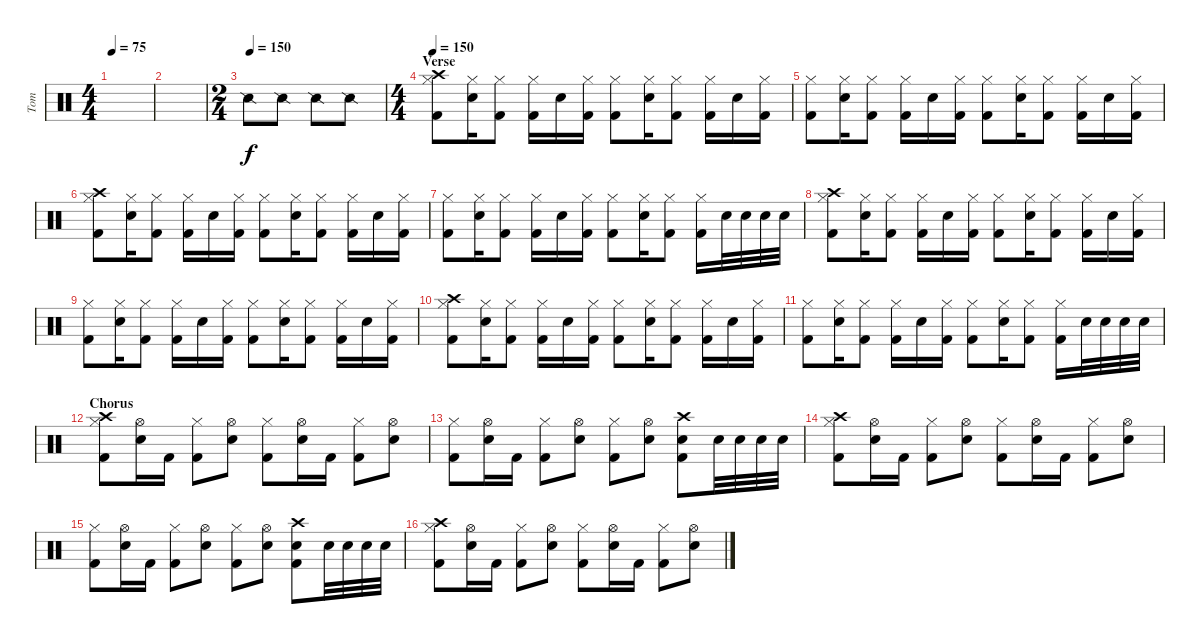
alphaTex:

\track ("Tom" "Tom") {instrument percussion}
\staff {score}
\articulation defaults
\ts (4 4)
\tempo 75
\clef neutral
\ks c
|
|
\ts (2 4)
\tempo (150)
"Snare (side stick) 2".8 "Snare (side stick) 2".8 "Snare (side stick) 2".8 "Snare (side stick) 2".8 |
\ts (4 4)
\section ("" "Verse")
\tempo 150
("Crash high (hit)" "Hi-Hat (closed)" "Kick (hit) 2").8 ("Hi-Hat (closed)" "Electric Snare (hit)").16 ("Hi-Hat (closed)" "Kick (hit) 2").8 ("Hi-Hat (closed)" "Kick (hit) 2").16 "Electric Snare (hit)".16 ("Hi-Hat (closed)" "Kick (hit) 2").16 ("Hi-Hat (closed)" "Kick (hit) 2").8 ("Hi-Hat (closed)" "Electric Snare (hit)").16 ("Hi-Hat (closed)" "Kick (hit) 2").8 ("Hi-Hat (closed)" "Kick (hit) 2").16 "Electric Snare (hit)".16 ("Hi-Hat (closed)" "Kick (hit) 2").16 |
("Hi-Hat (closed)" "Kick (hit) 2").8 ("Hi-Hat (closed)" "Electric Snare (hit)").16 ("Hi-Hat (closed)" "Kick (hit) 2").8 ("Hi-Hat (closed)" "Kick (hit) 2").16 "Electric Snare (hit)".16 ("Hi-Hat (closed)" "Kick (hit) 2").16 ("Hi-Hat (closed)" "Kick (hit) 2").8 ("Hi-Hat (closed)" "Electric Snare (hit)").16 ("Hi-Hat (closed)" "Kick (hit) 2").8 ("Hi-Hat (closed)" "Kick (hit) 2").16 "Electric Snare (hit)".16 ("Hi-Hat (closed)" "Kick (hit) 2").16 |
("Crash high (hit)" "Hi-Hat (closed)" "Kick (hit) 2").8 ("Hi-Hat (closed)" "Electric Snare (hit)").16 ("Hi-Hat (closed)" "Kick (hit) 2").8 ("Hi-Hat (closed)" "Kick (hit) 2").16 "Electric Snare (hit)".16 ("Hi-Hat (closed)" "Kick (hit) 2").16 ("Hi-Hat (closed)" "Kick (hit) 2").8 ("Hi-Hat (closed)" "Electric Snare (hit)").16 ("Hi-Hat (closed)" "Kick (hit) 2").8 ("Hi-Hat (closed)" "Kick (hit) 2").16 "Electric Snare (hit)".16 ("Hi-Hat (closed)" "Kick (hit) 2").16 |
("Hi-Hat (closed)" "Kick (hit) 2").8 ("Hi-Hat (closed)" "Electric Snare (hit)").16 ("Hi-Hat (closed)" "Kick (hit) 2").8 ("Hi-Hat (closed)" "Kick (hit) 2").16 "Electric Snare (hit)".16 ("Hi-Hat (closed)" "Kick (hit) 2").16 ("Hi-Hat (closed)" "Kick (hit) 2").8 ("Hi-Hat (closed)" "Electric Snare (hit)").16 ("Hi-Hat (closed)" "Kick (hit) 2").8 ("Hi-Hat (closed)" "Kick (hit) 2").16 "Electric Snare (hit)".32 "Electric Snare (hit)".32 "Electric Snare (hit)".32 "Electric Snare (hit)".32 |
("Crash high (hit)" "Hi-Hat (closed)" "Kick (hit) 2").8 ("Hi-Hat (closed)" "Electric Snare (hit)").16 ("Hi-Hat (closed)" "Kick (hit) 2").8 ("Hi-Hat (closed)" "Kick (hit) 2").16 "Electric Snare (hit)".16 ("Hi-Hat (closed)" "Kick (hit) 2").16 ("Hi-Hat (closed)" "Kick (hit) 2").8 ("Hi-Hat (closed)" "Electric Snare (hit)").16 ("Hi-Hat (closed)" "Kick (hit) 2").8 ("Hi-Hat (closed)" "Kick (hit) 2").16 "Electric Snare (hit)".16 ("Hi-Hat (closed)" "Kick (hit) 2").16 |
("Hi-Hat (closed)" "Kick (hit) 2").8 ("Hi-Hat (closed)" "Electric Snare (hit)").16 ("Hi-Hat (closed)" "Kick (hit) 2").8 ("Hi-Hat (closed)" "Kick (hit) 2").16 "Electric Snare (hit)".16 ("Hi-Hat (closed)" "Kick (hit) 2").16 ("Hi-Hat (closed)" "Kick (hit) 2").8 ("Hi-Hat (closed)" "Electric Snare (hit)").16 ("Hi-Hat (closed)" "Kick (hit) 2").8 ("Hi-Hat (closed)" "Kick (hit) 2").16 "Electric Snare (hit)".16 ("Hi-Hat (closed)" "Kick (hit) 2").16 |
("Crash high (hit)" "Hi-Hat (closed)" "Kick (hit) 2").8 ("Hi-Hat (closed)" "Electric Snare (hit)").16 ("Hi-Hat (closed)" "Kick (hit) 2").8 ("Hi-Hat (closed)" "Kick (hit) 2").16 "Electric Snare (hit)".16 ("Hi-Hat (closed)" "Kick (hit) 2").16 ("Hi-Hat (closed)" "Kick (hit) 2").8 ("Hi-Hat (closed)" "Electric Snare (hit)").16 ("Hi-Hat (closed)" "Kick (hit) 2").8 ("Hi-Hat (closed)" "Kick (hit) 2").16 "Electric Snare (hit)".16 ("Hi-Hat (closed)" "Kick (hit) 2").16 |
("Hi-Hat (closed)" "Kick (hit) 2").8 ("Hi-Hat (closed)" "Electric Snare (hit)").16 ("Hi-Hat (closed)" "Kick (hit) 2").8 ("Hi-Hat (closed)" "Kick (hit) 2").16 "Electric Snare (hit)".16 ("Hi-Hat (closed)" "Kick (hit) 2").16 ("Hi-Hat (closed)" "Kick (hit) 2").8 ("Hi-Hat (closed)" "Electric Snare (hit)").16 ("Hi-Hat (closed)" "Kick (hit) 2").8 ("Hi-Hat (closed)" "Kick (hit) 2").16 "Electric Snare (hit)".32 "Electric Snare (hit)".32 "Electric Snare (hit)".32 "Electric Snare (hit)".32 |
\section ("" "Chorus")
("Crash high (hit)" "Hi-Hat (closed)" "Kick (hit) 2").8 ("Hi-Hat (open)" "Electric Snare (hit)").16 "Kick (hit) 2".16 ("Hi-Hat (closed)" "Kick (hit) 2").8 ("Hi-Hat (open)" "Electric Snare (hit)").8 ("Hi-Hat (closed)" "Kick (hit) 2").8 ("Hi-Hat (open)" "Electric Snare (hit)").16 "Kick (hit) 2".16 ("Hi-Hat (closed)" "Kick (hit) 2").8 ("Hi-Hat (open)" "Electric Snare (hit)").8 |
("Hi-Hat (closed)" "Kick (hit) 2").8 ("Hi-Hat (open)" "Electric Snare (hit)").16 "Kick (hit) 2".16 ("Hi-Hat (closed)" "Kick (hit) 2").8 ("Hi-Hat (open)" "Electric Snare (hit)").8 ("Hi-Hat (closed)" "Kick (hit) 2").8 ("Hi-Hat (open)" "Electric Snare (hit)").8 ("Crash high (hit)" "Electric Snare (hit)" "Kick (hit) 2").8 "Electric Snare (hit)".32 "Electric Snare (hit)".32 "Electric Snare (hit)".32 "Electric Snare (hit)".32 |
("Crash high (hit)" "Hi-Hat (closed)" "Kick (hit) 2").8 ("Hi-Hat (open)" "Electric Snare (hit)").16 "Kick (hit) 2".16 ("Hi-Hat (closed)" "Kick (hit) 2").8 ("Hi-Hat (open)" "Electric Snare (hit)").8 ("Hi-Hat (closed)" "Kick (hit) 2").8 ("Hi-Hat (open)" "Electric Snare (hit)").16 "Kick (hit) 2".16 ("Hi-Hat (closed)" "Kick (hit) 2").8 ("Hi-Hat (open)" "Electric Snare (hit)").8 |
("Hi-Hat (closed)" "Kick (hit) 2").8 ("Hi-Hat (open)" "Electric Snare (hit)").16 "Kick (hit) 2".16 ("Hi-Hat (closed)" "Kick (hit) 2").8 ("Hi-Hat (open)" "Electric Snare (hit)").8 ("Hi-Hat (closed)" "Kick (hit) 2").8 ("Hi-Hat (open)" "Electric Snare (hit)").8 ("Crash high (hit)" "Electric Snare (hit)" "Kick (hit) 2").8 "Electric Snare (hit)".32 "Electric Snare (hit)".32 "Electric Snare (hit)".32 "Electric Snare (hit)".32 |
("Crash high (hit)" "Hi-Hat (closed)" "Kick (hit) 2").8 ("Hi-Hat (open)" "Electric Snare (hit)").16 "Kick (hit) 2".16 ("Hi-Hat (closed)" "Kick (hit) 2").8 ("Hi-Hat (open)" "Electric Snare (hit)").8 ("Hi-Hat (closed)" "Kick (hit) 2").8 ("Hi-Hat (open)" "Electric Snare (hit)").16 "Kick (hit) 2".16 ("Hi-Hat (closed)" "Kick (hit) 2").8 ("Hi-Hat (open)" "Electric Snare (hit)").8
